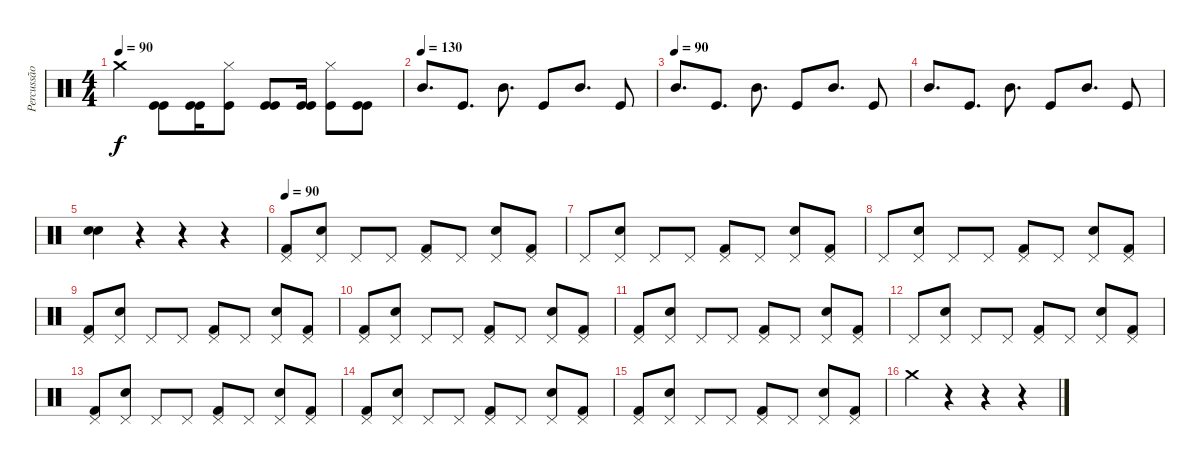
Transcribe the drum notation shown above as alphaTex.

\track ("Percussão" "Percussão") {instrument percussion}
\staff {score}
\articulation defaults
\ts (4 4)
\tempo 90
\clef neutral
\ks c "Crash medium (hit)".4{dy f}
("Kick (hit)" "Kick (hit)").8 ("Kick (hit)" "Kick (hit)").16 ("Kick (hit)" "Hi-Hat (closed)").8 ("Kick (hit)" "Kick (hit)").8 ("Kick (hit)" "Kick (hit)").16 ("Kick (hit)" "Hi-Hat (closed)").8 ("Kick (hit)" "Kick (hit)").8 |
\tempo (130)
"Mid Tom (hit)".8{d} "Kick (hit)".8{d} "Mid Tom (hit)".8{d} "Kick (hit)".8 "Mid Tom (hit)".8{d} "Kick (hit)".8 |
\tempo (90)
"Mid Tom (hit)".8{d} "Kick (hit)".8{d} "Mid Tom (hit)".8{d} "Kick (hit)".8 "Mid Tom (hit)".8{d} "Kick (hit)".8 |
"Mid Tom (hit)".8{d} "Kick (hit)".8{d} "Mid Tom (hit)".8{d} "Kick (hit)".8 "Mid Tom (hit)".8{d} "Kick (hit)".8 |
("Snare (hit) 2" "Snare (hit) 2").4 r.4 r.4 r.4 |
\tempo 90
("Pedal Hi-Hat (hit)" "Kick (hit) 2").8 ("Pedal Hi-Hat (hit)" "Electric Snare (hit)").8 "Pedal Hi-Hat (hit)".8 "Pedal Hi-Hat (hit)".8 ("Pedal Hi-Hat (hit)" "Kick (hit) 2").8 "Pedal Hi-Hat (hit)".8 ("Pedal Hi-Hat (hit)" "Electric Snare (hit)").8 ("Pedal Hi-Hat (hit)" "Kick (hit) 2").8 |
"Pedal Hi-Hat (hit)".8 ("Pedal Hi-Hat (hit)" "Electric Snare (hit)").8 "Pedal Hi-Hat (hit)".8 "Pedal Hi-Hat (hit)".8 ("Pedal Hi-Hat (hit)" "Kick (hit) 2").8 "Pedal Hi-Hat (hit)".8 ("Pedal Hi-Hat (hit)" "Electric Snare (hit)").8 ("Pedal Hi-Hat (hit)" "Kick (hit) 2").8 |
"Pedal Hi-Hat (hit)".8 ("Pedal Hi-Hat (hit)" "Electric Snare (hit)").8 "Pedal Hi-Hat (hit)".8 "Pedal Hi-Hat (hit)".8 ("Pedal Hi-Hat (hit)" "Kick (hit) 2").8 "Pedal Hi-Hat (hit)".8 ("Pedal Hi-Hat (hit)" "Electric Snare (hit)").8 ("Pedal Hi-Hat (hit)" "Kick (hit) 2").8 |
("Pedal Hi-Hat (hit)" "Kick (hit) 2").8 ("Pedal Hi-Hat (hit)" "Electric Snare (hit)").8 "Pedal Hi-Hat (hit)".8 "Pedal Hi-Hat (hit)".8 ("Pedal Hi-Hat (hit)" "Kick (hit) 2").8 "Pedal Hi-Hat (hit)".8 ("Pedal Hi-Hat (hit)" "Electric Snare (hit)").8 ("Pedal Hi-Hat (hit)" "Kick (hit) 2").8 |
("Pedal Hi-Hat (hit)" "Kick (hit) 2").8 ("Pedal Hi-Hat (hit)" "Electric Snare (hit)").8 "Pedal Hi-Hat (hit)".8 "Pedal Hi-Hat (hit)".8 ("Pedal Hi-Hat (hit)" "Kick (hit) 2").8 "Pedal Hi-Hat (hit)".8 ("Pedal Hi-Hat (hit)" "Electric Snare (hit)").8 ("Pedal Hi-Hat (hit)" "Kick (hit) 2").8 |
("Pedal Hi-Hat (hit)" "Kick (hit) 2").8 ("Pedal Hi-Hat (hit)" "Electric Snare (hit)").8 "Pedal Hi-Hat (hit)".8 "Pedal Hi-Hat (hit)".8 ("Pedal Hi-Hat (hit)" "Kick (hit) 2").8 "Pedal Hi-Hat (hit)".8 ("Pedal Hi-Hat (hit)" "Electric Snare (hit)").8 ("Pedal Hi-Hat (hit)" "Kick (hit) 2").8 |
"Pedal Hi-Hat (hit)".8 ("Pedal Hi-Hat (hit)" "Electric Snare (hit)").8 "Pedal Hi-Hat (hit)".8 "Pedal Hi-Hat (hit)".8 ("Pedal Hi-Hat (hit)" "Kick (hit) 2").8 "Pedal Hi-Hat (hit)".8 ("Pedal Hi-Hat (hit)" "Electric Snare (hit)").8 ("Pedal Hi-Hat (hit)" "Kick (hit) 2").8 |
("Pedal Hi-Hat (hit)" "Kick (hit) 2").8 ("Pedal Hi-Hat (hit)" "Electric Snare (hit)").8 "Pedal Hi-Hat (hit)".8 "Pedal Hi-Hat (hit)".8 ("Pedal Hi-Hat (hit)" "Kick (hit) 2").8 "Pedal Hi-Hat (hit)".8 ("Pedal Hi-Hat (hit)" "Electric Snare (hit)").8 ("Pedal Hi-Hat (hit)" "Kick (hit) 2").8 |
("Pedal Hi-Hat (hit)" "Kick (hit) 2").8 ("Pedal Hi-Hat (hit)" "Electric Snare (hit)").8 "Pedal Hi-Hat (hit)".8 "Pedal Hi-Hat (hit)".8 ("Pedal Hi-Hat (hit)" "Kick (hit) 2").8 "Pedal Hi-Hat (hit)".8 ("Pedal Hi-Hat (hit)" "Electric Snare (hit)").8 ("Pedal Hi-Hat (hit)" "Kick (hit) 2").8 |
("Pedal Hi-Hat (hit)" "Kick (hit) 2").8 ("Pedal Hi-Hat (hit)" "Electric Snare (hit)").8 "Pedal Hi-Hat (hit)".8 "Pedal Hi-Hat (hit)".8 ("Pedal Hi-Hat (hit)" "Kick (hit) 2").8 "Pedal Hi-Hat (hit)".8 ("Pedal Hi-Hat (hit)" "Electric Snare (hit)").8 ("Pedal Hi-Hat (hit)" "Kick (hit) 2").8 |
"Crash medium (hit)".4 r.4 r.4 r.4
